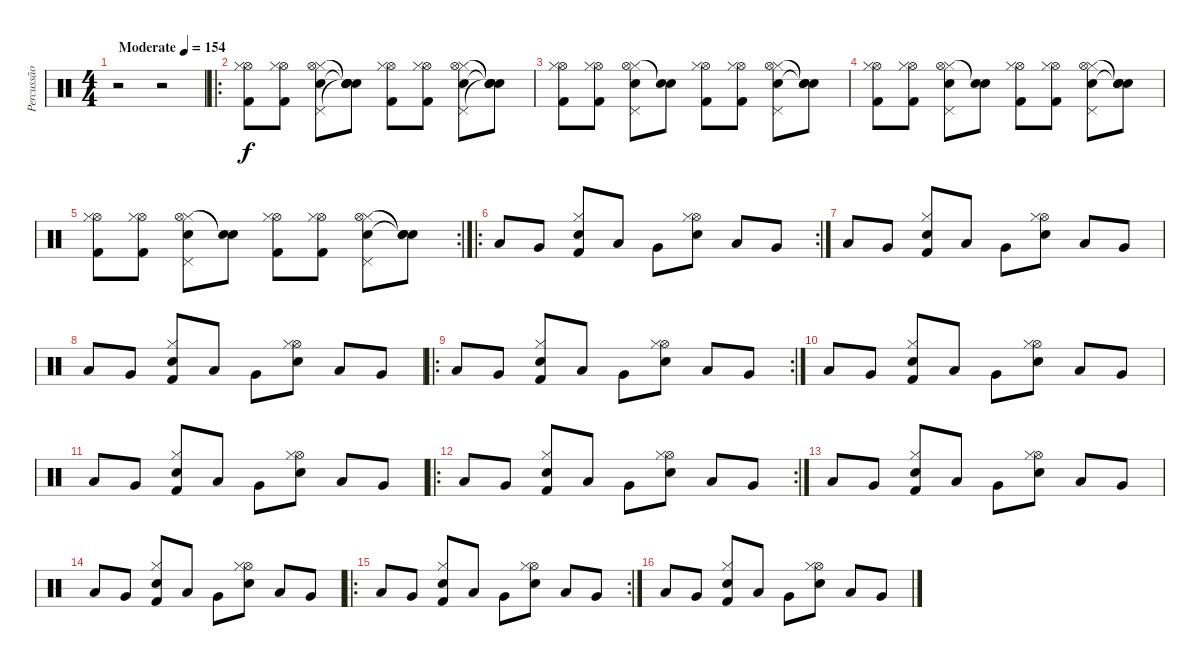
\track ("Percussão" "Percussão") {instrument percussion}
\staff {score}
\articulation defaults
\ts (4 4)
\tempo (154 "Moderate")
\clef neutral
\ks c
r.2{dy f} r.2 |
\ro
("Hi-Hat (open)" "Kick (hit) 2" "Hi-Hat (closed)").8 ("Hi-Hat (open)" "Kick (hit) 2" "Hi-Hat (closed)").8 ("Hi-Hat (closed)" "Hi-Hat (open)" "Snare (hit) 2" "Pedal Hi-Hat (hit)").8 ("Snare (hit)"{t} "Snare (hit)"{t} "Snare (hit)"{t} "Snare (hit)"{t}).8 ("Hi-Hat (open)" "Kick (hit) 2" "Hi-Hat (closed)").8 ("Hi-Hat (open)" "Kick (hit) 2" "Hi-Hat (closed)").8 ("Hi-Hat (closed)" "Hi-Hat (open)" "Snare (hit) 2" "Pedal Hi-Hat (hit)").8 ("Snare (hit)"{t} "Snare (hit)"{t} "Snare (hit)"{t} "Snare (hit)"{t}).8 |
("Hi-Hat (open)" "Kick (hit) 2" "Hi-Hat (closed)").8 ("Hi-Hat (open)" "Kick (hit) 2" "Hi-Hat (closed)").8 ("Hi-Hat (closed)" "Hi-Hat (open)" "Snare (hit) 2" "Pedal Hi-Hat (hit)").8 ("Snare (hit)"{t} "Snare (hit)"{t}).8 ("Hi-Hat (open)" "Kick (hit) 2" "Hi-Hat (closed)").8 ("Hi-Hat (open)" "Kick (hit) 2" "Hi-Hat (closed)").8 ("Hi-Hat (closed)" "Hi-Hat (open)" "Snare (hit) 2" "Pedal Hi-Hat (hit)").8 ("Snare (hit)"{t} "Snare (hit)"{t} "Snare (hit)"{t}).8 |
("Hi-Hat (open)" "Kick (hit) 2" "Hi-Hat (closed)").8 ("Hi-Hat (open)" "Kick (hit) 2" "Hi-Hat (closed)").8 ("Hi-Hat (closed)" "Hi-Hat (open)" "Snare (hit) 2" "Pedal Hi-Hat (hit)").8 ("Snare (hit)"{t} "Snare (hit)"{t}).8 ("Hi-Hat (open)" "Kick (hit) 2" "Hi-Hat (closed)").8 ("Hi-Hat (open)" "Kick (hit) 2" "Hi-Hat (closed)").8 ("Hi-Hat (closed)" "Hi-Hat (open)" "Snare (hit) 2" "Pedal Hi-Hat (hit)").8 ("Snare (hit)"{t} "Snare (hit)"{t} "Snare (hit)"{t}).8 |
\rc 2
("Hi-Hat (open)" "Kick (hit) 2" "Hi-Hat (closed)").8 ("Hi-Hat (open)" "Kick (hit) 2" "Hi-Hat (closed)").8 ("Hi-Hat (closed)" "Hi-Hat (open)" "Snare (hit) 2" "Pedal Hi-Hat (hit)").8 ("Snare (hit)"{t} "Snare (hit)"{t}).8 ("Hi-Hat (open)" "Kick (hit) 2" "Hi-Hat (closed)").8 ("Hi-Hat (open)" "Kick (hit) 2" "Hi-Hat (closed)").8 ("Hi-Hat (closed)" "Hi-Hat (open)" "Snare (hit) 2" "Pedal Hi-Hat (hit)").8 ("Snare (hit)"{t} "Snare (hit)"{t} "Snare (hit)"{t}).8 |
\ro
\rc 2 "Low Floor Tom (hit)".8 "Very Low Tom (hit)".8
("Snare (hit) 2" "Kick (hit) 2" "Hi-Hat (closed)").8 "Low Floor Tom (hit)".8 "Very Low Tom (hit)".8 ("Snare (hit) 2" "Hi-Hat (open)" "Hi-Hat (closed)").8 "Low Floor Tom (hit)".8 "Very Low Tom (hit)".8 |
"Low Floor Tom (hit)".8 "Very Low Tom (hit)".8 ("Snare (hit) 2" "Kick (hit) 2" "Hi-Hat (closed)").8 "Low Floor Tom (hit)".8 "Very Low Tom (hit)".8 ("Snare (hit) 2" "Hi-Hat (open)" "Hi-Hat (closed)").8 "Low Floor Tom (hit)".8 "Very Low Tom (hit)".8 |
"Low Floor Tom (hit)".8 "Very Low Tom (hit)".8 ("Snare (hit) 2" "Kick (hit) 2" "Hi-Hat (closed)").8 "Low Floor Tom (hit)".8 "Very Low Tom (hit)".8 ("Snare (hit) 2" "Hi-Hat (open)" "Hi-Hat (closed)").8 "Low Floor Tom (hit)".8 "Very Low Tom (hit)".8 |
\ro
\rc 2 "Low Floor Tom (hit)".8 "Very Low Tom (hit)".8
("Snare (hit) 2" "Kick (hit) 2" "Hi-Hat (closed)").8 "Low Floor Tom (hit)".8 "Very Low Tom (hit)".8 ("Snare (hit) 2" "Hi-Hat (open)" "Hi-Hat (closed)").8 "Low Floor Tom (hit)".8 "Very Low Tom (hit)".8 |
"Low Floor Tom (hit)".8 "Very Low Tom (hit)".8 ("Snare (hit) 2" "Kick (hit) 2" "Hi-Hat (closed)").8 "Low Floor Tom (hit)".8 "Very Low Tom (hit)".8 ("Snare (hit) 2" "Hi-Hat (open)" "Hi-Hat (closed)").8 "Low Floor Tom (hit)".8 "Very Low Tom (hit)".8 |
"Low Floor Tom (hit)".8 "Very Low Tom (hit)".8 ("Snare (hit) 2" "Kick (hit) 2" "Hi-Hat (closed)").8 "Low Floor Tom (hit)".8 "Very Low Tom (hit)".8 ("Snare (hit) 2" "Hi-Hat (open)" "Hi-Hat (closed)").8 "Low Floor Tom (hit)".8 "Very Low Tom (hit)".8 |
\ro
\rc 2 "Low Floor Tom (hit)".8 "Very Low Tom (hit)".8
("Snare (hit) 2" "Kick (hit) 2" "Hi-Hat (closed)").8 "Low Floor Tom (hit)".8 "Very Low Tom (hit)".8 ("Snare (hit) 2" "Hi-Hat (open)" "Hi-Hat (closed)").8 "Low Floor Tom (hit)".8 "Very Low Tom (hit)".8 |
"Low Floor Tom (hit)".8 "Very Low Tom (hit)".8 ("Snare (hit) 2" "Kick (hit) 2" "Hi-Hat (closed)").8 "Low Floor Tom (hit)".8 "Very Low Tom (hit)".8 ("Snare (hit) 2" "Hi-Hat (open)" "Hi-Hat (closed)").8 "Low Floor Tom (hit)".8 "Very Low Tom (hit)".8 |
"Low Floor Tom (hit)".8 "Very Low Tom (hit)".8 ("Snare (hit) 2" "Kick (hit) 2" "Hi-Hat (closed)").8 "Low Floor Tom (hit)".8 "Very Low Tom (hit)".8 ("Snare (hit) 2" "Hi-Hat (open)" "Hi-Hat (closed)").8 "Low Floor Tom (hit)".8 "Very Low Tom (hit)".8 |
\ro
\rc 2 "Low Floor Tom (hit)".8 "Very Low Tom (hit)".8
("Snare (hit) 2" "Kick (hit) 2" "Hi-Hat (closed)").8 "Low Floor Tom (hit)".8 "Very Low Tom (hit)".8 ("Snare (hit) 2" "Hi-Hat (open)" "Hi-Hat (closed)").8 "Low Floor Tom (hit)".8 "Very Low Tom (hit)".8 |
"Low Floor Tom (hit)".8 "Very Low Tom (hit)".8 ("Snare (hit) 2" "Kick (hit) 2" "Hi-Hat (closed)").8 "Low Floor Tom (hit)".8 "Very Low Tom (hit)".8 ("Snare (hit) 2" "Hi-Hat (open)" "Hi-Hat (closed)").8 "Low Floor Tom (hit)".8 "Very Low Tom (hit)".8
